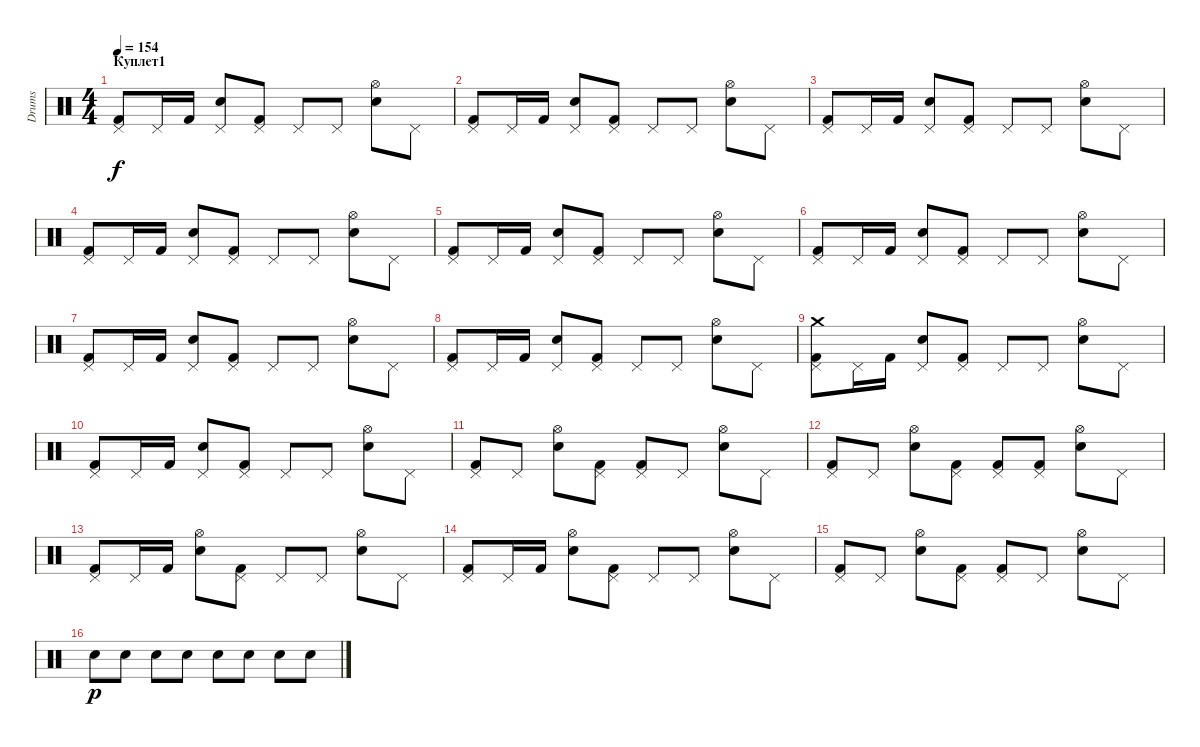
\track ("Drums" "Drums") {instrument percussion}
\staff {score}
\articulation defaults
\ts (4 4)
\section ("" "Куплет1")
\tempo 154
\clef neutral
\ks c
("Pedal Hi-Hat (hit)" "Kick (hit) 2").8{dy f} "Pedal Hi-Hat (hit)".16 "Kick (hit) 2".16 ("Pedal Hi-Hat (hit)" "Electric Snare (hit)").8 ("Pedal Hi-Hat (hit)" "Kick (hit) 2").8 "Pedal Hi-Hat (hit)".8 "Pedal Hi-Hat (hit)".8 ("Hi-Hat (open)" "Electric Snare (hit)").8 "Pedal Hi-Hat (hit)".8 |
("Pedal Hi-Hat (hit)" "Kick (hit) 2").8 "Pedal Hi-Hat (hit)".16 "Kick (hit) 2".16 ("Pedal Hi-Hat (hit)" "Electric Snare (hit)").8 ("Pedal Hi-Hat (hit)" "Kick (hit) 2").8 "Pedal Hi-Hat (hit)".8 "Pedal Hi-Hat (hit)".8 ("Hi-Hat (open)" "Electric Snare (hit)").8 "Pedal Hi-Hat (hit)".8 |
("Pedal Hi-Hat (hit)" "Kick (hit) 2").8 "Pedal Hi-Hat (hit)".16 "Kick (hit) 2".16 ("Pedal Hi-Hat (hit)" "Electric Snare (hit)").8 ("Pedal Hi-Hat (hit)" "Kick (hit) 2").8 "Pedal Hi-Hat (hit)".8 "Pedal Hi-Hat (hit)".8 ("Hi-Hat (open)" "Electric Snare (hit)").8 "Pedal Hi-Hat (hit)".8 |
("Pedal Hi-Hat (hit)" "Kick (hit) 2").8 "Pedal Hi-Hat (hit)".16 "Kick (hit) 2".16 ("Pedal Hi-Hat (hit)" "Electric Snare (hit)").8 ("Pedal Hi-Hat (hit)" "Kick (hit) 2").8 "Pedal Hi-Hat (hit)".8 "Pedal Hi-Hat (hit)".8 ("Hi-Hat (open)" "Electric Snare (hit)").8 "Pedal Hi-Hat (hit)".8 |
("Pedal Hi-Hat (hit)" "Kick (hit) 2").8 "Pedal Hi-Hat (hit)".16 "Kick (hit) 2".16 ("Pedal Hi-Hat (hit)" "Electric Snare (hit)").8 ("Pedal Hi-Hat (hit)" "Kick (hit) 2").8 "Pedal Hi-Hat (hit)".8 "Pedal Hi-Hat (hit)".8 ("Hi-Hat (open)" "Electric Snare (hit)").8 "Pedal Hi-Hat (hit)".8 |
("Pedal Hi-Hat (hit)" "Kick (hit) 2").8 "Pedal Hi-Hat (hit)".16 "Kick (hit) 2".16 ("Pedal Hi-Hat (hit)" "Electric Snare (hit)").8 ("Pedal Hi-Hat (hit)" "Kick (hit) 2").8 "Pedal Hi-Hat (hit)".8 "Pedal Hi-Hat (hit)".8 ("Hi-Hat (open)" "Electric Snare (hit)").8 "Pedal Hi-Hat (hit)".8 |
("Pedal Hi-Hat (hit)" "Kick (hit) 2").8 "Pedal Hi-Hat (hit)".16 "Kick (hit) 2".16 ("Pedal Hi-Hat (hit)" "Electric Snare (hit)").8 ("Pedal Hi-Hat (hit)" "Kick (hit) 2").8 "Pedal Hi-Hat (hit)".8 "Pedal Hi-Hat (hit)".8 ("Hi-Hat (open)" "Electric Snare (hit)").8 "Pedal Hi-Hat (hit)".8 |
("Pedal Hi-Hat (hit)" "Kick (hit) 2").8 "Pedal Hi-Hat (hit)".16 "Kick (hit) 2".16 ("Pedal Hi-Hat (hit)" "Electric Snare (hit)").8 ("Pedal Hi-Hat (hit)" "Kick (hit) 2").8 "Pedal Hi-Hat (hit)".8 "Pedal Hi-Hat (hit)".8 ("Hi-Hat (open)" "Electric Snare (hit)").8 "Pedal Hi-Hat (hit)".8 |
("Crash medium (hit)" "Pedal Hi-Hat (hit)" "Kick (hit) 2").8 "Pedal Hi-Hat (hit)".16 "Kick (hit) 2".16 ("Pedal Hi-Hat (hit)" "Electric Snare (hit)").8 ("Pedal Hi-Hat (hit)" "Kick (hit) 2").8 "Pedal Hi-Hat (hit)".8 "Pedal Hi-Hat (hit)".8 ("Hi-Hat (open)" "Electric Snare (hit)").8 "Pedal Hi-Hat (hit)".8 |
("Pedal Hi-Hat (hit)" "Kick (hit) 2").8 "Pedal Hi-Hat (hit)".16 "Kick (hit) 2".16 ("Pedal Hi-Hat (hit)" "Electric Snare (hit)").8 ("Pedal Hi-Hat (hit)" "Kick (hit) 2").8 "Pedal Hi-Hat (hit)".8 "Pedal Hi-Hat (hit)".8 ("Hi-Hat (open)" "Electric Snare (hit)").8 "Pedal Hi-Hat (hit)".8 |
("Pedal Hi-Hat (hit)" "Kick (hit) 2").8 "Pedal Hi-Hat (hit)".8 ("Hi-Hat (open)" "Electric Snare (hit)").8 ("Pedal Hi-Hat (hit)" "Kick (hit) 2").8 ("Pedal Hi-Hat (hit)" "Kick (hit) 2").8 "Pedal Hi-Hat (hit)".8 ("Hi-Hat (open)" "Electric Snare (hit)").8 "Pedal Hi-Hat (hit)".8 |
("Pedal Hi-Hat (hit)" "Kick (hit) 2").8 "Pedal Hi-Hat (hit)".8 ("Hi-Hat (open)" "Electric Snare (hit)").8 ("Pedal Hi-Hat (hit)" "Kick (hit) 2").8 ("Pedal Hi-Hat (hit)" "Kick (hit) 2").8 ("Pedal Hi-Hat (hit)" "Kick (hit) 2").8 ("Hi-Hat (open)" "Electric Snare (hit)").8 "Pedal Hi-Hat (hit)".8 |
("Pedal Hi-Hat (hit)" "Kick (hit) 2").8 "Pedal Hi-Hat (hit)".16 "Kick (hit) 2".16 ("Hi-Hat (open)" "Electric Snare (hit)").8 ("Pedal Hi-Hat (hit)" "Kick (hit) 2").8 "Pedal Hi-Hat (hit)".8 "Pedal Hi-Hat (hit)".8 ("Hi-Hat (open)" "Electric Snare (hit)").8 "Pedal Hi-Hat (hit)".8 |
("Pedal Hi-Hat (hit)" "Kick (hit) 2").8 "Pedal Hi-Hat (hit)".16 "Kick (hit) 2".16 ("Hi-Hat (open)" "Electric Snare (hit)").8 ("Pedal Hi-Hat (hit)" "Kick (hit) 2").8 "Pedal Hi-Hat (hit)".8 "Pedal Hi-Hat (hit)".8 ("Hi-Hat (open)" "Electric Snare (hit)").8 "Pedal Hi-Hat (hit)".8 |
("Pedal Hi-Hat (hit)" "Kick (hit) 2").8 "Pedal Hi-Hat (hit)".8 ("Hi-Hat (open)" "Electric Snare (hit)").8 ("Pedal Hi-Hat (hit)" "Kick (hit) 2").8 ("Pedal Hi-Hat (hit)" "Kick (hit) 2").8 "Pedal Hi-Hat (hit)".8 ("Hi-Hat (open)" "Electric Snare (hit)").8 "Pedal Hi-Hat (hit)".8 |
"Electric Snare (hit)".8{dy p} "Electric Snare (hit)".8 "Electric Snare (hit)".8 "Electric Snare (hit)".8 "Electric Snare (hit)".8 "Electric Snare (hit)".8 "Electric Snare (hit)".8 "Electric Snare (hit)".8
